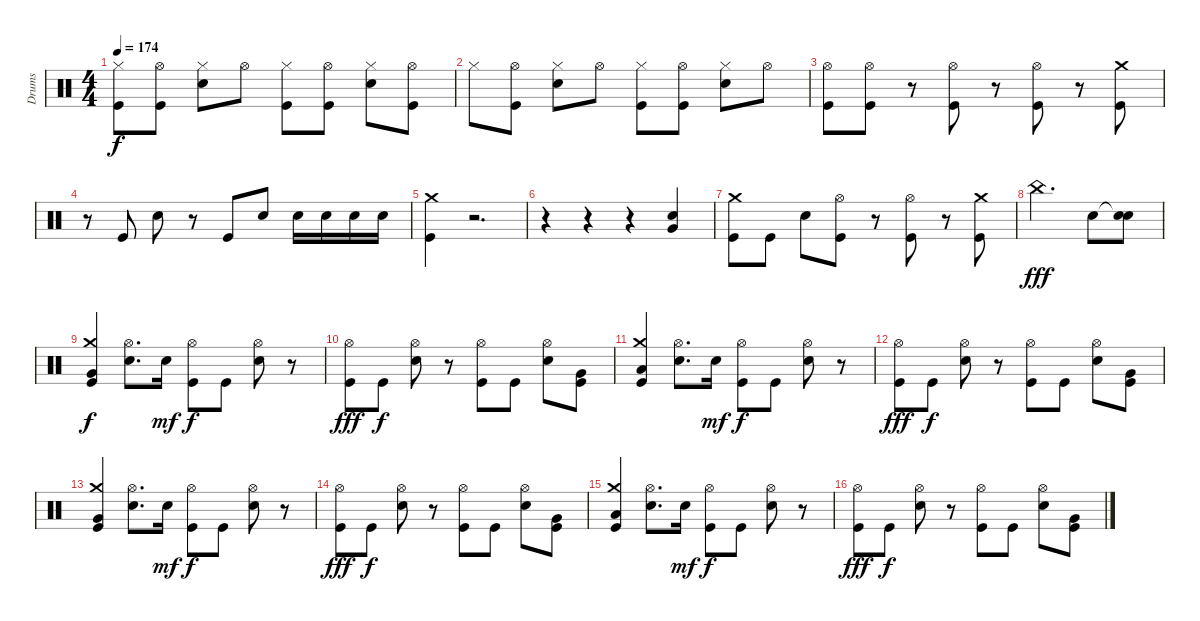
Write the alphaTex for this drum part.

\track ("Drums" "Drums") {instrument percussion}
\staff {score}
\articulation defaults
\ts (4 4)
\tempo 174
\clef neutral
\ks c
("Hi-Hat (closed)" "Kick (hit)").8{dy f} ("Hi-Hat (open)" "Kick (hit)").8 ("Hi-Hat (closed)" "Electric Snare (hit)").8 "Hi-Hat (open)".8 ("Hi-Hat (closed)" "Kick (hit)").8 ("Hi-Hat (open)" "Kick (hit)").8 ("Hi-Hat (closed)" "Electric Snare (hit)").8 ("Hi-Hat (open)" "Kick (hit)").8 |
"Hi-Hat (closed)".8 ("Hi-Hat (open)" "Kick (hit)").8 ("Hi-Hat (closed)" "Electric Snare (hit)").8 "Hi-Hat (open)".8 ("Hi-Hat (closed)" "Kick (hit)").8 ("Hi-Hat (open)" "Kick (hit)").8 ("Hi-Hat (closed)" "Electric Snare (hit)").8 "Hi-Hat (open)".8 |
("Hi-Hat (open)" "Kick (hit)").8 ("Hi-Hat (open)" "Kick (hit)").8 r.8 ("Hi-Hat (open)" "Kick (hit)").8 r.8 ("Hi-Hat (open)" "Kick (hit)").8 r.8 ("Crash medium (hit)" "Kick (hit)").8 |
r.8 "Kick (hit)".8 "Electric Snare (hit)".8 r.8 "Kick (hit)".8 "Electric Snare (hit)".8 "Electric Snare (hit)".16 "Electric Snare (hit)".16 "Electric Snare (hit)".16 "Electric Snare (hit)".16 |
("Crash medium (hit)" "Kick (hit)").4 r.2{d} |
r.4 r.4 r.4 ("Electric Snare (hit)" "Very Low Tom (hit)").4 |
("Crash medium (hit)" "Kick (hit)").8 "Kick (hit)".8 "Electric Snare (hit)".8 ("Hi-Hat (open)" "Kick (hit)").8 r.8 ("Hi-Hat (open)" "Kick (hit)").8 r.8 ("Crash medium (hit)" "Kick (hit)").8 |
"China (hit)".2{d dy fff} "Electric Snare (hit)".8 ("Snare (hit)"{t} "Electric Snare (hit)").8 |
("Crash medium (hit)" "Very Low Tom (hit)" "Kick (hit)").4{dy f} ("Hi-Hat (open)" "Electric Snare (hit)").8{d} "Electric Snare (hit)".16{dy mf} ("Hi-Hat (open)" "Kick (hit)").8{dy f} "Kick (hit)".8 ("Hi-Hat (open)" "Electric Snare (hit)").8 r.8 |
("Hi-Hat (open)" "Kick (hit)").8{dy fff} "Kick (hit)".8{dy f} ("Hi-Hat (open)" "Electric Snare (hit)").8 r.8 ("Hi-Hat (open)" "Kick (hit)").8 "Kick (hit)".8 ("Hi-Hat (open)" "Electric Snare (hit)").8 ("Very Low Tom (hit)" "Kick (hit)").8 |
("Crash medium (hit)" "Low Floor Tom (hit)" "Kick (hit)").4 ("Hi-Hat (open)" "Electric Snare (hit)").8{d} "Electric Snare (hit)".16{dy mf} ("Hi-Hat (open)" "Kick (hit)").8{dy f} "Kick (hit)".8 ("Hi-Hat (open)" "Electric Snare (hit)").8 r.8 |
("Hi-Hat (open)" "Kick (hit)").8{dy fff} "Kick (hit)".8{dy f} ("Hi-Hat (open)" "Electric Snare (hit)").8 r.8 ("Hi-Hat (open)" "Kick (hit)").8 "Kick (hit)".8 ("Hi-Hat (open)" "Electric Snare (hit)").8 ("Very Low Tom (hit)" "Kick (hit)").8 |
("Crash medium (hit)" "Very Low Tom (hit)" "Kick (hit)").4 ("Hi-Hat (open)" "Electric Snare (hit)").8{d} "Electric Snare (hit)".16{dy mf} ("Hi-Hat (open)" "Kick (hit)").8{dy f} "Kick (hit)".8 ("Hi-Hat (open)" "Electric Snare (hit)").8 r.8 |
("Hi-Hat (open)" "Kick (hit)").8{dy fff} "Kick (hit)".8{dy f} ("Hi-Hat (open)" "Electric Snare (hit)").8 r.8 ("Hi-Hat (open)" "Kick (hit)").8 "Kick (hit)".8 ("Hi-Hat (open)" "Electric Snare (hit)").8 ("Very Low Tom (hit)" "Kick (hit)").8 |
("Crash medium (hit)" "Low Floor Tom (hit)" "Kick (hit)").4 ("Hi-Hat (open)" "Electric Snare (hit)").8{d} "Electric Snare (hit)".16{dy mf} ("Hi-Hat (open)" "Kick (hit)").8{dy f} "Kick (hit)".8 ("Hi-Hat (open)" "Electric Snare (hit)").8 r.8 |
("Hi-Hat (open)" "Kick (hit)").8{dy fff} "Kick (hit)".8{dy f} ("Hi-Hat (open)" "Electric Snare (hit)").8 r.8 ("Hi-Hat (open)" "Kick (hit)").8 "Kick (hit)".8 ("Hi-Hat (open)" "Electric Snare (hit)").8 ("Very Low Tom (hit)" "Kick (hit)").8
